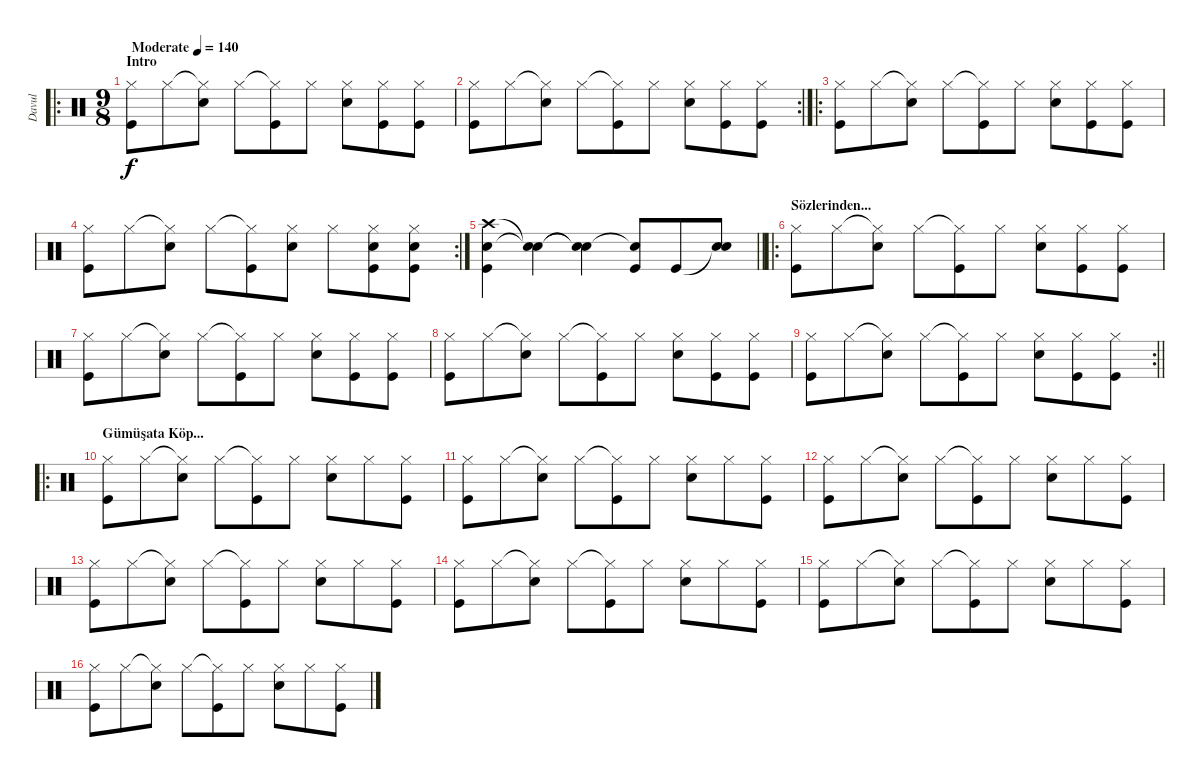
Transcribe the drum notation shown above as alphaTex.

\track ("Davul" "Davul") {instrument percussion}
\staff {score}
\articulation defaults
\ro
\ts (9 8)
\section ("" "Intro")
\tempo (140 "Moderate")
\clef neutral
\ks c
("Hi-Hat (closed)" "Kick (hit)").8{dy f} "Hi-Hat (closed)".8 ("Hi-Hat (closed)"{t} "Snare (hit) 2").8 "Hi-Hat (closed)".8 ("Hi-Hat (closed)"{t} "Kick (hit)").8 "Hi-Hat (closed)".8 ("Hi-Hat (closed)" "Snare (hit) 2").8 ("Hi-Hat (closed)" "Kick (hit)").8 ("Hi-Hat (closed)" "Kick (hit)").8 |
\rc 2
("Hi-Hat (closed)" "Kick (hit)").8 "Hi-Hat (closed)".8 ("Hi-Hat (closed)"{t} "Snare (hit) 2").8 "Hi-Hat (closed)".8 ("Hi-Hat (closed)"{t} "Kick (hit)").8 "Hi-Hat (closed)".8 ("Hi-Hat (closed)" "Snare (hit) 2").8 ("Hi-Hat (closed)" "Kick (hit)").8 ("Hi-Hat (closed)" "Kick (hit)").8 |
\ro
("Hi-Hat (closed)" "Kick (hit)").8 "Hi-Hat (closed)".8 ("Hi-Hat (closed)"{t} "Snare (hit) 2").8 "Hi-Hat (closed)".8 ("Hi-Hat (closed)"{t} "Kick (hit)").8 "Hi-Hat (closed)".8 ("Hi-Hat (closed)" "Snare (hit) 2").8 ("Hi-Hat (closed)" "Kick (hit)").8 ("Hi-Hat (closed)" "Kick (hit)").8 |
\rc 2
("Hi-Hat (closed)" "Kick (hit)").8 "Hi-Hat (closed)".8 ("Hi-Hat (closed)"{t} "Snare (hit) 2").8 "Hi-Hat (closed)".8 ("Hi-Hat (closed)"{t} "Kick (hit)").8 ("Hi-Hat (closed)" "Snare (hit) 2").8 "Hi-Hat (closed)".8 ("Hi-Hat (closed)" "Snare (hit) 2" "Kick (hit)").8 ("Hi-Hat (closed)" "Snare (hit) 2" "Kick (hit)").8 |
\barLineRight lightlight
("Crash high (hit)" "Snare (hit) 2" "Kick (hit)").4 ("Snare (hit)"{t} "Snare (hit)"{t}).4 ("Snare (hit)"{t} "Snare (hit)"{t}).4 ("Snare (hit)"{t} "Kick (hit)").8 "Kick (hit)".8 ("Snare (hit)"{t} "Snare (hit) 2").8 |
\ro
\section ("" "Sözlerinden...")
("Hi-Hat (closed)" "Kick (hit)").8 "Hi-Hat (closed)".8 ("Hi-Hat (closed)"{t} "Snare (hit) 2").8 "Hi-Hat (closed)".8 ("Hi-Hat (closed)"{t} "Kick (hit)").8 "Hi-Hat (closed)".8 ("Hi-Hat (closed)" "Snare (hit) 2").8 ("Hi-Hat (closed)" "Kick (hit)").8 ("Hi-Hat (closed)" "Kick (hit)").8 |
("Hi-Hat (closed)" "Kick (hit)").8 "Hi-Hat (closed)".8 ("Hi-Hat (closed)"{t} "Snare (hit) 2").8 "Hi-Hat (closed)".8 ("Hi-Hat (closed)"{t} "Kick (hit)").8 "Hi-Hat (closed)".8 ("Hi-Hat (closed)" "Snare (hit) 2").8 ("Hi-Hat (closed)" "Kick (hit)").8 ("Hi-Hat (closed)" "Kick (hit)").8 |
("Hi-Hat (closed)" "Kick (hit)").8 "Hi-Hat (closed)".8 ("Hi-Hat (closed)"{t} "Snare (hit) 2").8 "Hi-Hat (closed)".8 ("Hi-Hat (closed)"{t} "Kick (hit)").8 "Hi-Hat (closed)".8 ("Hi-Hat (closed)" "Snare (hit) 2").8 ("Hi-Hat (closed)" "Kick (hit)").8 ("Hi-Hat (closed)" "Kick (hit)").8 |
\rc 2
\barLineRight lightlight
("Hi-Hat (closed)" "Kick (hit)").8 "Hi-Hat (closed)".8 ("Hi-Hat (closed)"{t} "Snare (hit) 2").8 "Hi-Hat (closed)".8 ("Hi-Hat (closed)"{t} "Kick (hit)").8 "Hi-Hat (closed)".8 ("Hi-Hat (closed)" "Snare (hit) 2").8 ("Hi-Hat (closed)" "Kick (hit)").8 ("Hi-Hat (closed)" "Kick (hit)").8 |
\ro
\section ("" "Gümüşata Köp...")
("Hi-Hat (closed)" "Kick (hit)").8 "Hi-Hat (closed)".8 ("Hi-Hat (closed)"{t} "Snare (hit) 2").8 "Hi-Hat (closed)".8 ("Hi-Hat (closed)"{t} "Kick (hit)").8 "Hi-Hat (closed)".8 ("Hi-Hat (closed)" "Snare (hit) 2").8 "Hi-Hat (closed)".8 ("Hi-Hat (closed)" "Kick (hit)").8 |
("Hi-Hat (closed)" "Kick (hit)").8 "Hi-Hat (closed)".8 ("Hi-Hat (closed)"{t} "Snare (hit) 2").8 "Hi-Hat (closed)".8 ("Hi-Hat (closed)"{t} "Kick (hit)").8 "Hi-Hat (closed)".8 ("Hi-Hat (closed)" "Snare (hit) 2").8 "Hi-Hat (closed)".8 ("Hi-Hat (closed)" "Kick (hit)").8 |
("Hi-Hat (closed)" "Kick (hit)").8 "Hi-Hat (closed)".8 ("Hi-Hat (closed)"{t} "Snare (hit) 2").8 "Hi-Hat (closed)".8 ("Hi-Hat (closed)"{t} "Kick (hit)").8 "Hi-Hat (closed)".8 ("Hi-Hat (closed)" "Snare (hit) 2").8 "Hi-Hat (closed)".8 ("Hi-Hat (closed)" "Kick (hit)").8 |
("Hi-Hat (closed)" "Kick (hit)").8 "Hi-Hat (closed)".8 ("Hi-Hat (closed)"{t} "Snare (hit) 2").8 "Hi-Hat (closed)".8 ("Hi-Hat (closed)"{t} "Kick (hit)").8 "Hi-Hat (closed)".8 ("Hi-Hat (closed)" "Snare (hit) 2").8 "Hi-Hat (closed)".8 ("Hi-Hat (closed)" "Kick (hit)").8 |
("Hi-Hat (closed)" "Kick (hit)").8 "Hi-Hat (closed)".8 ("Hi-Hat (closed)"{t} "Snare (hit) 2").8 "Hi-Hat (closed)".8 ("Hi-Hat (closed)"{t} "Kick (hit)").8 "Hi-Hat (closed)".8 ("Hi-Hat (closed)" "Snare (hit) 2").8 "Hi-Hat (closed)".8 ("Hi-Hat (closed)" "Kick (hit)").8 |
("Hi-Hat (closed)" "Kick (hit)").8 "Hi-Hat (closed)".8 ("Hi-Hat (closed)"{t} "Snare (hit) 2").8 "Hi-Hat (closed)".8 ("Hi-Hat (closed)"{t} "Kick (hit)").8 "Hi-Hat (closed)".8 ("Hi-Hat (closed)" "Snare (hit) 2").8 "Hi-Hat (closed)".8 ("Hi-Hat (closed)" "Kick (hit)").8 |
("Hi-Hat (closed)" "Kick (hit)").8 "Hi-Hat (closed)".8 ("Hi-Hat (closed)"{t} "Snare (hit) 2").8 "Hi-Hat (closed)".8 ("Hi-Hat (closed)"{t} "Kick (hit)").8 "Hi-Hat (closed)".8 ("Hi-Hat (closed)" "Snare (hit) 2").8 "Hi-Hat (closed)".8 ("Hi-Hat (closed)" "Kick (hit)").8
